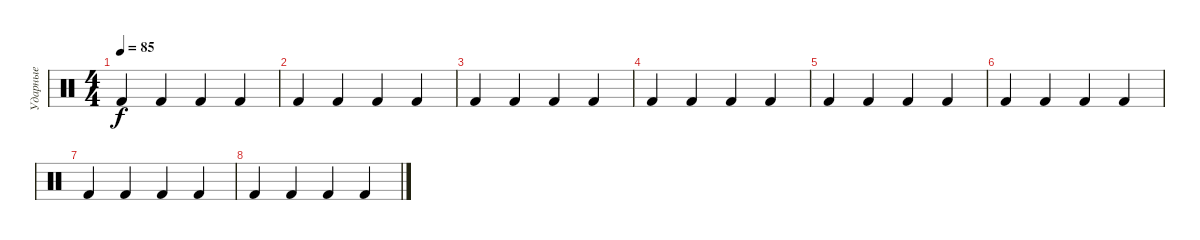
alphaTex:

\track ("Ударные" "Ударные") {instrument percussion}
\staff {score}
\articulation defaults
\ts (4 4)
\tempo 85
\clef neutral
\ks c "Kick (hit) 2".4{dy f} "Kick (hit) 2".4 "Kick (hit) 2".4 "Kick (hit) 2".4
|
"Kick (hit) 2".4 "Kick (hit) 2".4 "Kick (hit) 2".4 "Kick (hit) 2".4 |
"Kick (hit) 2".4 "Kick (hit) 2".4 "Kick (hit) 2".4 "Kick (hit) 2".4 |
"Kick (hit) 2".4 "Kick (hit) 2".4 "Kick (hit) 2".4 "Kick (hit) 2".4 |
"Kick (hit) 2".4 "Kick (hit) 2".4 "Kick (hit) 2".4 "Kick (hit) 2".4 |
"Kick (hit) 2".4 "Kick (hit) 2".4 "Kick (hit) 2".4 "Kick (hit) 2".4 |
"Kick (hit) 2".4 "Kick (hit) 2".4 "Kick (hit) 2".4 "Kick (hit) 2".4 |
"Kick (hit) 2".4 "Kick (hit) 2".4 "Kick (hit) 2".4 "Kick (hit) 2".4
